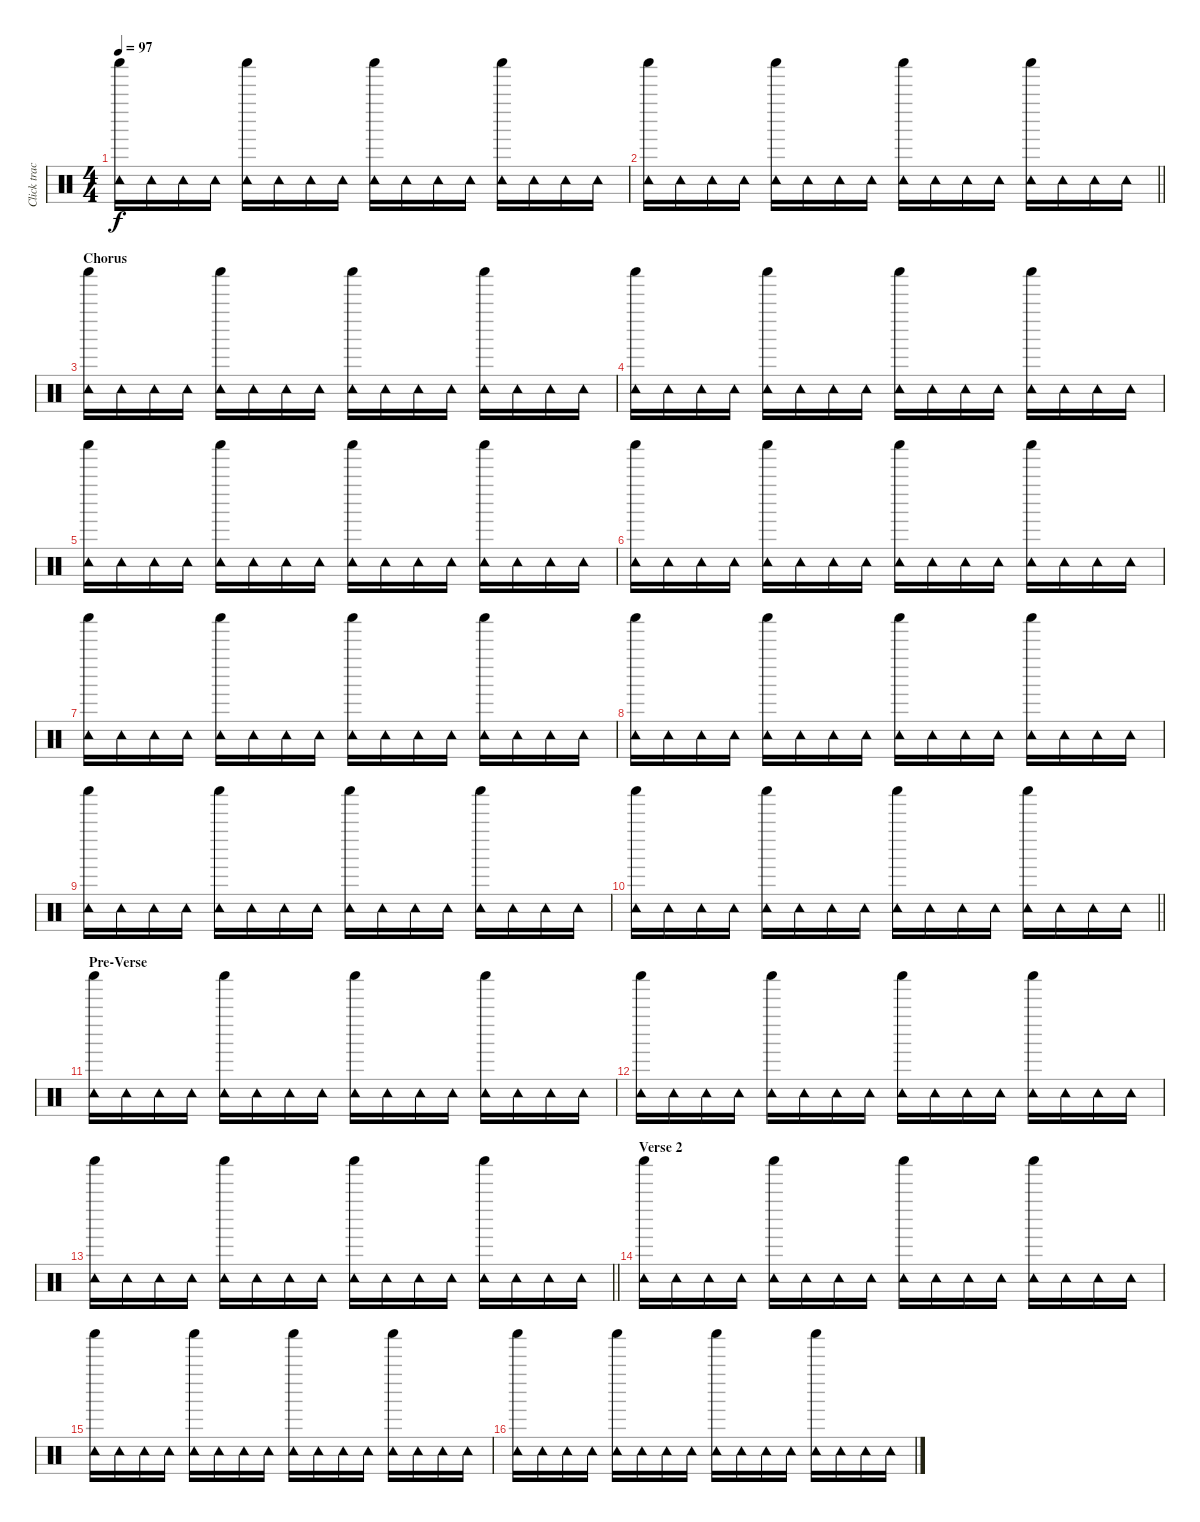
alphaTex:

\track ("Click track" "Click trac") {instrument percussion}
\staff {score}
\articulation defaults
\ts (4 4)
\tempo 97
\clef neutral
\ks c
("Shaker (hit)" "Tambourine (hit)").16{dy f} "Tambourine (hit)".16 "Tambourine (hit)".16 "Tambourine (hit)".16 ("Shaker (hit)" "Tambourine (hit)").16 "Tambourine (hit)".16 "Tambourine (hit)".16 "Tambourine (hit)".16 ("Shaker (hit)" "Tambourine (hit)").16 "Tambourine (hit)".16 "Tambourine (hit)".16 "Tambourine (hit)".16 ("Shaker (hit)" "Tambourine (hit)").16 "Tambourine (hit)".16 "Tambourine (hit)".16 "Tambourine (hit)".16 |
\barLineRight lightlight
("Shaker (hit)" "Tambourine (hit)").16 "Tambourine (hit)".16 "Tambourine (hit)".16 "Tambourine (hit)".16 ("Shaker (hit)" "Tambourine (hit)").16 "Tambourine (hit)".16 "Tambourine (hit)".16 "Tambourine (hit)".16 ("Shaker (hit)" "Tambourine (hit)").16 "Tambourine (hit)".16 "Tambourine (hit)".16 "Tambourine (hit)".16 ("Shaker (hit)" "Tambourine (hit)").16 "Tambourine (hit)".16 "Tambourine (hit)".16 "Tambourine (hit)".16 |
\section ("" "Chorus")
("Shaker (hit)" "Tambourine (hit)").16 "Tambourine (hit)".16 "Tambourine (hit)".16 "Tambourine (hit)".16 ("Shaker (hit)" "Tambourine (hit)").16 "Tambourine (hit)".16 "Tambourine (hit)".16 "Tambourine (hit)".16 ("Shaker (hit)" "Tambourine (hit)").16 "Tambourine (hit)".16 "Tambourine (hit)".16 "Tambourine (hit)".16 ("Shaker (hit)" "Tambourine (hit)").16 "Tambourine (hit)".16 "Tambourine (hit)".16 "Tambourine (hit)".16 |
("Shaker (hit)" "Tambourine (hit)").16 "Tambourine (hit)".16 "Tambourine (hit)".16 "Tambourine (hit)".16 ("Shaker (hit)" "Tambourine (hit)").16 "Tambourine (hit)".16 "Tambourine (hit)".16 "Tambourine (hit)".16 ("Shaker (hit)" "Tambourine (hit)").16 "Tambourine (hit)".16 "Tambourine (hit)".16 "Tambourine (hit)".16 ("Shaker (hit)" "Tambourine (hit)").16 "Tambourine (hit)".16 "Tambourine (hit)".16 "Tambourine (hit)".16 |
("Shaker (hit)" "Tambourine (hit)").16 "Tambourine (hit)".16 "Tambourine (hit)".16 "Tambourine (hit)".16 ("Shaker (hit)" "Tambourine (hit)").16 "Tambourine (hit)".16 "Tambourine (hit)".16 "Tambourine (hit)".16 ("Shaker (hit)" "Tambourine (hit)").16 "Tambourine (hit)".16 "Tambourine (hit)".16 "Tambourine (hit)".16 ("Shaker (hit)" "Tambourine (hit)").16 "Tambourine (hit)".16 "Tambourine (hit)".16 "Tambourine (hit)".16 |
("Shaker (hit)" "Tambourine (hit)").16 "Tambourine (hit)".16 "Tambourine (hit)".16 "Tambourine (hit)".16 ("Shaker (hit)" "Tambourine (hit)").16 "Tambourine (hit)".16 "Tambourine (hit)".16 "Tambourine (hit)".16 ("Shaker (hit)" "Tambourine (hit)").16 "Tambourine (hit)".16 "Tambourine (hit)".16 "Tambourine (hit)".16 ("Shaker (hit)" "Tambourine (hit)").16 "Tambourine (hit)".16 "Tambourine (hit)".16 "Tambourine (hit)".16 |
("Shaker (hit)" "Tambourine (hit)").16 "Tambourine (hit)".16 "Tambourine (hit)".16 "Tambourine (hit)".16 ("Shaker (hit)" "Tambourine (hit)").16 "Tambourine (hit)".16 "Tambourine (hit)".16 "Tambourine (hit)".16 ("Shaker (hit)" "Tambourine (hit)").16 "Tambourine (hit)".16 "Tambourine (hit)".16 "Tambourine (hit)".16 ("Shaker (hit)" "Tambourine (hit)").16 "Tambourine (hit)".16 "Tambourine (hit)".16 "Tambourine (hit)".16 |
("Shaker (hit)" "Tambourine (hit)").16 "Tambourine (hit)".16 "Tambourine (hit)".16 "Tambourine (hit)".16 ("Shaker (hit)" "Tambourine (hit)").16 "Tambourine (hit)".16 "Tambourine (hit)".16 "Tambourine (hit)".16 ("Shaker (hit)" "Tambourine (hit)").16 "Tambourine (hit)".16 "Tambourine (hit)".16 "Tambourine (hit)".16 ("Shaker (hit)" "Tambourine (hit)").16 "Tambourine (hit)".16 "Tambourine (hit)".16 "Tambourine (hit)".16 |
("Shaker (hit)" "Tambourine (hit)").16 "Tambourine (hit)".16 "Tambourine (hit)".16 "Tambourine (hit)".16 ("Shaker (hit)" "Tambourine (hit)").16 "Tambourine (hit)".16 "Tambourine (hit)".16 "Tambourine (hit)".16 ("Shaker (hit)" "Tambourine (hit)").16 "Tambourine (hit)".16 "Tambourine (hit)".16 "Tambourine (hit)".16 ("Shaker (hit)" "Tambourine (hit)").16 "Tambourine (hit)".16 "Tambourine (hit)".16 "Tambourine (hit)".16 |
\barLineRight lightlight
("Shaker (hit)" "Tambourine (hit)").16 "Tambourine (hit)".16 "Tambourine (hit)".16 "Tambourine (hit)".16 ("Shaker (hit)" "Tambourine (hit)").16 "Tambourine (hit)".16 "Tambourine (hit)".16 "Tambourine (hit)".16 ("Shaker (hit)" "Tambourine (hit)").16 "Tambourine (hit)".16 "Tambourine (hit)".16 "Tambourine (hit)".16 ("Shaker (hit)" "Tambourine (hit)").16 "Tambourine (hit)".16 "Tambourine (hit)".16 "Tambourine (hit)".16 |
\section ("" "Pre-Verse")
("Shaker (hit)" "Tambourine (hit)").16 "Tambourine (hit)".16 "Tambourine (hit)".16 "Tambourine (hit)".16 ("Shaker (hit)" "Tambourine (hit)").16 "Tambourine (hit)".16 "Tambourine (hit)".16 "Tambourine (hit)".16 ("Shaker (hit)" "Tambourine (hit)").16 "Tambourine (hit)".16 "Tambourine (hit)".16 "Tambourine (hit)".16 ("Shaker (hit)" "Tambourine (hit)").16 "Tambourine (hit)".16 "Tambourine (hit)".16 "Tambourine (hit)".16 |
("Shaker (hit)" "Tambourine (hit)").16 "Tambourine (hit)".16 "Tambourine (hit)".16 "Tambourine (hit)".16 ("Shaker (hit)" "Tambourine (hit)").16 "Tambourine (hit)".16 "Tambourine (hit)".16 "Tambourine (hit)".16 ("Shaker (hit)" "Tambourine (hit)").16 "Tambourine (hit)".16 "Tambourine (hit)".16 "Tambourine (hit)".16 ("Shaker (hit)" "Tambourine (hit)").16 "Tambourine (hit)".16 "Tambourine (hit)".16 "Tambourine (hit)".16 |
\barLineRight lightlight
("Shaker (hit)" "Tambourine (hit)").16 "Tambourine (hit)".16 "Tambourine (hit)".16 "Tambourine (hit)".16 ("Shaker (hit)" "Tambourine (hit)").16 "Tambourine (hit)".16 "Tambourine (hit)".16 "Tambourine (hit)".16 ("Shaker (hit)" "Tambourine (hit)").16 "Tambourine (hit)".16 "Tambourine (hit)".16 "Tambourine (hit)".16 ("Shaker (hit)" "Tambourine (hit)").16 "Tambourine (hit)".16 "Tambourine (hit)".16 "Tambourine (hit)".16 |
\section ("" "Verse 2")
("Shaker (hit)" "Tambourine (hit)").16 "Tambourine (hit)".16 "Tambourine (hit)".16 "Tambourine (hit)".16 ("Shaker (hit)" "Tambourine (hit)").16 "Tambourine (hit)".16 "Tambourine (hit)".16 "Tambourine (hit)".16 ("Shaker (hit)" "Tambourine (hit)").16 "Tambourine (hit)".16 "Tambourine (hit)".16 "Tambourine (hit)".16 ("Shaker (hit)" "Tambourine (hit)").16 "Tambourine (hit)".16 "Tambourine (hit)".16 "Tambourine (hit)".16 |
("Shaker (hit)" "Tambourine (hit)").16 "Tambourine (hit)".16 "Tambourine (hit)".16 "Tambourine (hit)".16 ("Shaker (hit)" "Tambourine (hit)").16 "Tambourine (hit)".16 "Tambourine (hit)".16 "Tambourine (hit)".16 ("Shaker (hit)" "Tambourine (hit)").16 "Tambourine (hit)".16 "Tambourine (hit)".16 "Tambourine (hit)".16 ("Shaker (hit)" "Tambourine (hit)").16 "Tambourine (hit)".16 "Tambourine (hit)".16 "Tambourine (hit)".16 |
("Shaker (hit)" "Tambourine (hit)").16 "Tambourine (hit)".16 "Tambourine (hit)".16 "Tambourine (hit)".16 ("Shaker (hit)" "Tambourine (hit)").16 "Tambourine (hit)".16 "Tambourine (hit)".16 "Tambourine (hit)".16 ("Shaker (hit)" "Tambourine (hit)").16 "Tambourine (hit)".16 "Tambourine (hit)".16 "Tambourine (hit)".16 ("Shaker (hit)" "Tambourine (hit)").16 "Tambourine (hit)".16 "Tambourine (hit)".16 "Tambourine (hit)".16
